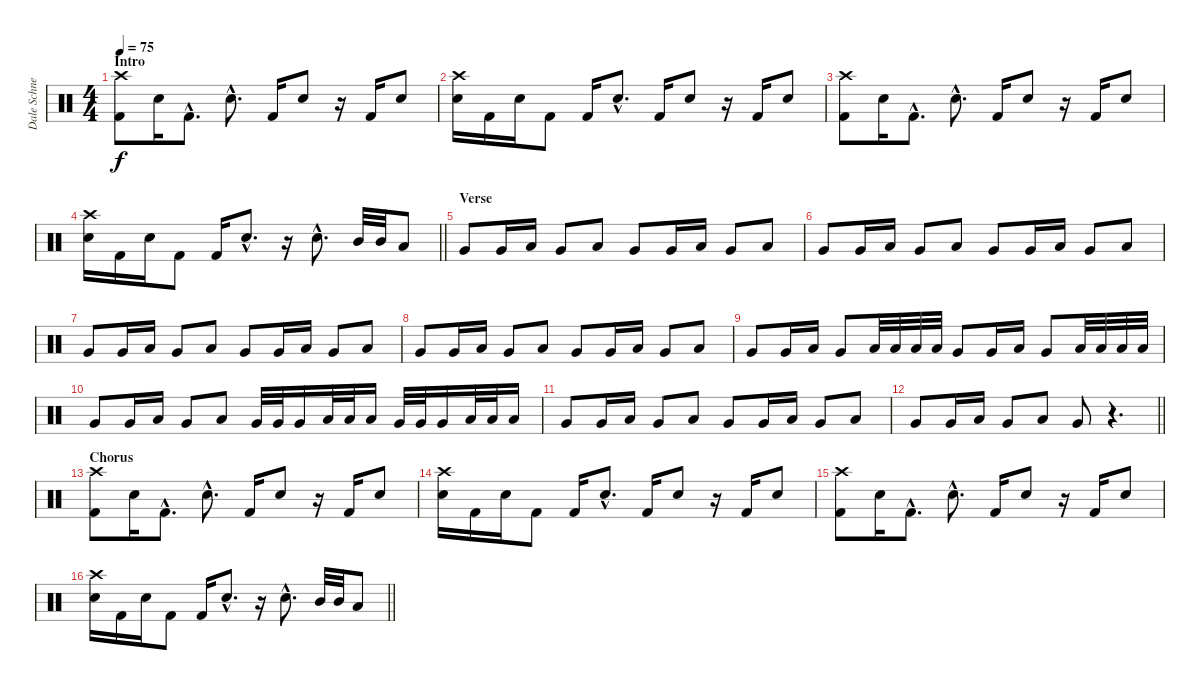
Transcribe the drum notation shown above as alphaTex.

\track ("Dale Schnettler (Drums)" "Dale Schne") {instrument percussion}
\staff {score}
\articulation defaults
\ts (4 4)
\section ("" "Intro")
\tempo 75
\clef neutral
\ks c
("Crash high (hit)" "Kick (hit) 2").8{dy f} "Electric Snare (hit)".16 "Kick (hit) 2"{hac}.8{d} "Electric Snare (hit)"{hac}.8{d} "Kick (hit) 2".16 "Electric Snare (hit)".8 r.16 "Kick (hit) 2".16 "Electric Snare (hit)".8 |
("Crash high (hit)" "Electric Snare (hit)").16 "Kick (hit) 2".16 "Electric Snare (hit)".16 "Kick (hit) 2".8 "Kick (hit) 2".16 "Electric Snare (hit)"{hac}.8{d} "Kick (hit) 2".16 "Electric Snare (hit)".8 r.16 "Kick (hit) 2".16 "Electric Snare (hit)".8 |
("Crash high (hit)" "Kick (hit) 2").8 "Electric Snare (hit)".16 "Kick (hit) 2"{hac}.8{d} "Electric Snare (hit)"{hac}.8{d} "Kick (hit) 2".16 "Electric Snare (hit)".8 r.16 "Kick (hit) 2".16 "Electric Snare (hit)".8 |
\barLineRight lightlight
("Crash high (hit)" "Electric Snare (hit)").16 "Kick (hit) 2".16 "Electric Snare (hit)".16 "Kick (hit) 2".8 "Kick (hit) 2".16 "Electric Snare (hit)"{hac}.8{d} r.16 "Electric Snare (hit)"{hac}.8{d} "Mid Tom (hit)".32 "Mid Tom (hit)".32 "Low Tom (hit)".8 |
\section ("" "Verse")
"Very Low Tom (hit)".8 "Very Low Tom (hit)".16 "Low Tom (hit)".16 "Very Low Tom (hit)".8 "Low Floor Tom (hit)".8 "Very Low Tom (hit)".8 "Very Low Tom (hit)".16 "Low Tom (hit)".16 "Very Low Tom (hit)".8 "Low Floor Tom (hit)".8 |
"Very Low Tom (hit)".8 "Very Low Tom (hit)".16 "Low Tom (hit)".16 "Very Low Tom (hit)".8 "Low Floor Tom (hit)".8 "Very Low Tom (hit)".8 "Very Low Tom (hit)".16 "Low Tom (hit)".16 "Very Low Tom (hit)".8 "Low Floor Tom (hit)".8 |
"Very Low Tom (hit)".8 "Very Low Tom (hit)".16 "Low Tom (hit)".16 "Very Low Tom (hit)".8 "Low Floor Tom (hit)".8 "Very Low Tom (hit)".8 "Very Low Tom (hit)".16 "Low Tom (hit)".16 "Very Low Tom (hit)".8 "Low Floor Tom (hit)".8 |
"Very Low Tom (hit)".8 "Very Low Tom (hit)".16 "Low Tom (hit)".16 "Very Low Tom (hit)".8 "Low Floor Tom (hit)".8 "Very Low Tom (hit)".8 "Very Low Tom (hit)".16 "Low Tom (hit)".16 "Very Low Tom (hit)".8 "Low Floor Tom (hit)".8 |
"Very Low Tom (hit)".8 "Very Low Tom (hit)".16 "Low Tom (hit)".16 "Very Low Tom (hit)".8 "Low Floor Tom (hit)".32 "Low Floor Tom (hit)".32 "Low Floor Tom (hit)".32 "Low Floor Tom (hit)".32 "Very Low Tom (hit)".8 "Very Low Tom (hit)".16 "Low Tom (hit)".16 "Very Low Tom (hit)".8 "Low Floor Tom (hit)".32 "Low Floor Tom (hit)".32 "Low Floor Tom (hit)".32 "Low Floor Tom (hit)".32 |
"Very Low Tom (hit)".8 "Very Low Tom (hit)".16 "Low Tom (hit)".16 "Very Low Tom (hit)".8 "Low Floor Tom (hit)".8 "Very Low Tom (hit)".32 "Very Low Tom (hit)".32 "Very Low Tom (hit)".16 "Low Floor Tom (hit)".32 "Low Floor Tom (hit)".32 "Low Floor Tom (hit)".16 "Very Low Tom (hit)".32 "Very Low Tom (hit)".32 "Very Low Tom (hit)".16 "Low Floor Tom (hit)".32 "Low Floor Tom (hit)".32 "Low Floor Tom (hit)".16 |
"Very Low Tom (hit)".8 "Very Low Tom (hit)".16 "Low Tom (hit)".16 "Very Low Tom (hit)".8 "Low Floor Tom (hit)".8 "Very Low Tom (hit)".8 "Very Low Tom (hit)".16 "Low Tom (hit)".16 "Very Low Tom (hit)".8 "Low Floor Tom (hit)".8 |
\barLineRight lightlight "Very Low Tom (hit)".8 "Very Low Tom (hit)".16 "Low Tom (hit)".16 "Very Low Tom (hit)".8 "Low Floor Tom (hit)".8 "Very Low Tom (hit)".8
r.4{d} |
\section ("" "Chorus")
("Crash high (hit)" "Kick (hit) 2").8 "Electric Snare (hit)".16 "Kick (hit) 2"{hac}.8{d} "Electric Snare (hit)"{hac}.8{d} "Kick (hit) 2".16 "Electric Snare (hit)".8 r.16 "Kick (hit) 2".16 "Electric Snare (hit)".8 |
("Crash high (hit)" "Electric Snare (hit)").16 "Kick (hit) 2".16 "Electric Snare (hit)".16 "Kick (hit) 2".8 "Kick (hit) 2".16 "Electric Snare (hit)"{hac}.8{d} "Kick (hit) 2".16 "Electric Snare (hit)".8 r.16 "Kick (hit) 2".16 "Electric Snare (hit)".8 |
("Crash high (hit)" "Kick (hit) 2").8 "Electric Snare (hit)".16 "Kick (hit) 2"{hac}.8{d} "Electric Snare (hit)"{hac}.8{d} "Kick (hit) 2".16 "Electric Snare (hit)".8 r.16 "Kick (hit) 2".16 "Electric Snare (hit)".8 |
\barLineRight lightlight
("Crash high (hit)" "Electric Snare (hit)").16 "Kick (hit) 2".16 "Electric Snare (hit)".16 "Kick (hit) 2".8 "Kick (hit) 2".16 "Electric Snare (hit)"{hac}.8{d} r.16 "Electric Snare (hit)"{hac}.8{d} "Mid Tom (hit)".32 "Mid Tom (hit)".32 "Low Tom (hit)".8
